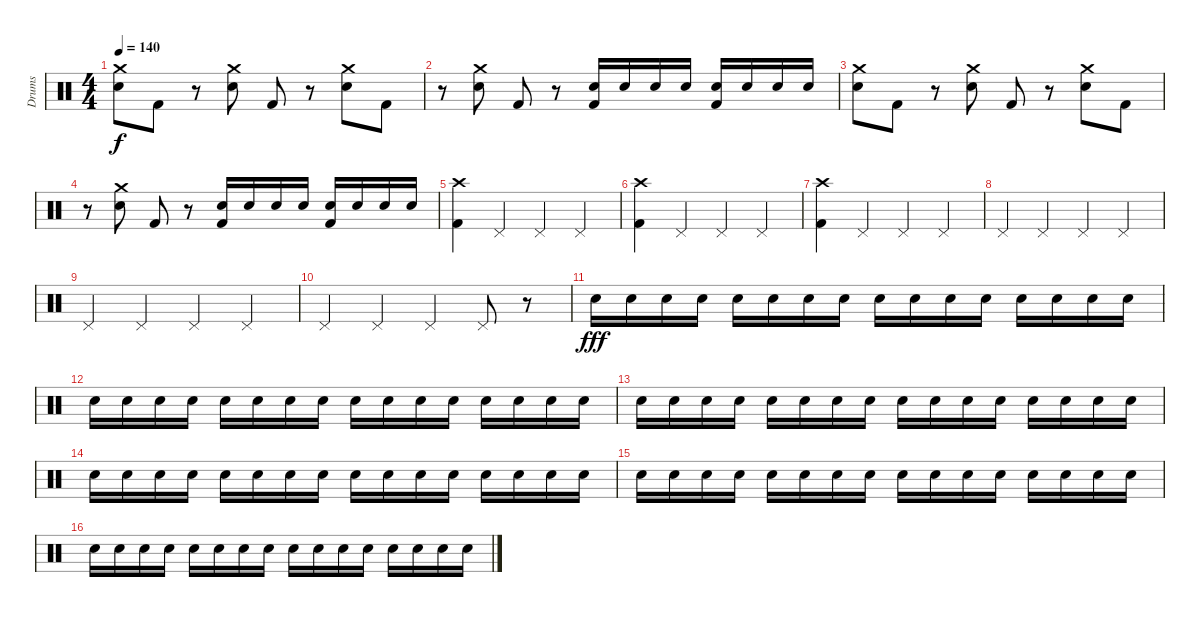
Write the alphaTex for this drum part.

\track ("Drums" "Drums") {instrument percussion}
\staff {score}
\articulation defaults
\ts (4 4)
\tempo 140
\clef neutral
\ks c
("Crash medium (hit)" "Snare (hit) 2").8{dy f} "Kick (hit) 2".8 r.8 ("Crash medium (hit)" "Snare (hit) 2").8 "Kick (hit) 2".8 r.8 ("Crash medium (hit)" "Snare (hit) 2").8 "Kick (hit) 2".8 |
r.8 ("Crash medium (hit)" "Snare (hit) 2").8 "Kick (hit) 2".8 r.8 ("Snare (hit) 2" "Kick (hit) 2").16 "Snare (hit) 2".16 "Snare (hit) 2".16 "Snare (hit) 2".16 ("Snare (hit) 2" "Kick (hit) 2").16 "Snare (hit) 2".16 "Snare (hit) 2".16 "Snare (hit) 2".16 |
("Crash medium (hit)" "Snare (hit) 2").8 "Kick (hit) 2".8 r.8 ("Crash medium (hit)" "Snare (hit) 2").8 "Kick (hit) 2".8 r.8 ("Crash medium (hit)" "Snare (hit) 2").8 "Kick (hit) 2".8 |
r.8 ("Crash medium (hit)" "Snare (hit) 2").8 "Kick (hit) 2".8 r.8 ("Snare (hit) 2" "Kick (hit) 2").16 "Snare (hit) 2".16 "Snare (hit) 2".16 "Snare (hit) 2".16 ("Snare (hit) 2" "Kick (hit) 2").16 "Snare (hit) 2".16 "Snare (hit) 2".16 "Snare (hit) 2".16 |
("Crash high (hit)" "Kick (hit) 2").4 "Pedal Hi-Hat (hit)".4 "Pedal Hi-Hat (hit)".4 "Pedal Hi-Hat (hit)".4 |
("Crash high (hit)" "Kick (hit) 2").4 "Pedal Hi-Hat (hit)".4 "Pedal Hi-Hat (hit)".4 "Pedal Hi-Hat (hit)".4 |
("Crash high (hit)" "Kick (hit) 2").4 "Pedal Hi-Hat (hit)".4 "Pedal Hi-Hat (hit)".4 "Pedal Hi-Hat (hit)".4 |
"Pedal Hi-Hat (hit)".4 "Pedal Hi-Hat (hit)".4 "Pedal Hi-Hat (hit)".4 "Pedal Hi-Hat (hit)".4 |
"Pedal Hi-Hat (hit)".4 "Pedal Hi-Hat (hit)".4 "Pedal Hi-Hat (hit)".4 "Pedal Hi-Hat (hit)".4 |
"Pedal Hi-Hat (hit)".4 "Pedal Hi-Hat (hit)".4 "Pedal Hi-Hat (hit)".4 "Pedal Hi-Hat (hit)".8 r.8{volume 0} |
"Snare (hit) 2".16{dy fff volume 10} "Snare (hit) 2".16 "Snare (hit) 2".16 "Snare (hit) 2".16 "Snare (hit) 2".16 "Snare (hit) 2".16 "Snare (hit) 2".16 "Snare (hit) 2".16 "Snare (hit) 2".16 "Snare (hit) 2".16 "Snare (hit) 2".16 "Snare (hit) 2".16 "Snare (hit) 2".16 "Snare (hit) 2".16 "Snare (hit) 2".16 "Snare (hit) 2".16 |
"Snare (hit) 2".16 "Snare (hit) 2".16 "Snare (hit) 2".16 "Snare (hit) 2".16 "Snare (hit) 2".16 "Snare (hit) 2".16 "Snare (hit) 2".16 "Snare (hit) 2".16 "Snare (hit) 2".16 "Snare (hit) 2".16 "Snare (hit) 2".16 "Snare (hit) 2".16 "Snare (hit) 2".16 "Snare (hit) 2".16 "Snare (hit) 2".16 "Snare (hit) 2".16 |
"Snare (hit) 2".16 "Snare (hit) 2".16 "Snare (hit) 2".16 "Snare (hit) 2".16 "Snare (hit) 2".16 "Snare (hit) 2".16 "Snare (hit) 2".16 "Snare (hit) 2".16 "Snare (hit) 2".16 "Snare (hit) 2".16 "Snare (hit) 2".16 "Snare (hit) 2".16 "Snare (hit) 2".16 "Snare (hit) 2".16 "Snare (hit) 2".16 "Snare (hit) 2".16 |
"Snare (hit) 2".16 "Snare (hit) 2".16 "Snare (hit) 2".16 "Snare (hit) 2".16 "Snare (hit) 2".16 "Snare (hit) 2".16 "Snare (hit) 2".16 "Snare (hit) 2".16 "Snare (hit) 2".16 "Snare (hit) 2".16 "Snare (hit) 2".16 "Snare (hit) 2".16 "Snare (hit) 2".16 "Snare (hit) 2".16 "Snare (hit) 2".16 "Snare (hit) 2".16 |
"Snare (hit) 2".16{volume 16} "Snare (hit) 2".16 "Snare (hit) 2".16 "Snare (hit) 2".16 "Snare (hit) 2".16 "Snare (hit) 2".16 "Snare (hit) 2".16 "Snare (hit) 2".16 "Snare (hit) 2".16 "Snare (hit) 2".16 "Snare (hit) 2".16 "Snare (hit) 2".16 "Snare (hit) 2".16 "Snare (hit) 2".16 "Snare (hit) 2".16 "Snare (hit) 2".16 |
"Snare (hit) 2".16 "Snare (hit) 2".16 "Snare (hit) 2".16 "Snare (hit) 2".16 "Snare (hit) 2".16 "Snare (hit) 2".16 "Snare (hit) 2".16 "Snare (hit) 2".16 "Snare (hit) 2".16 "Snare (hit) 2".16 "Snare (hit) 2".16 "Snare (hit) 2".16 "Snare (hit) 2".16 "Snare (hit) 2".16 "Snare (hit) 2".16 "Snare (hit) 2".16
